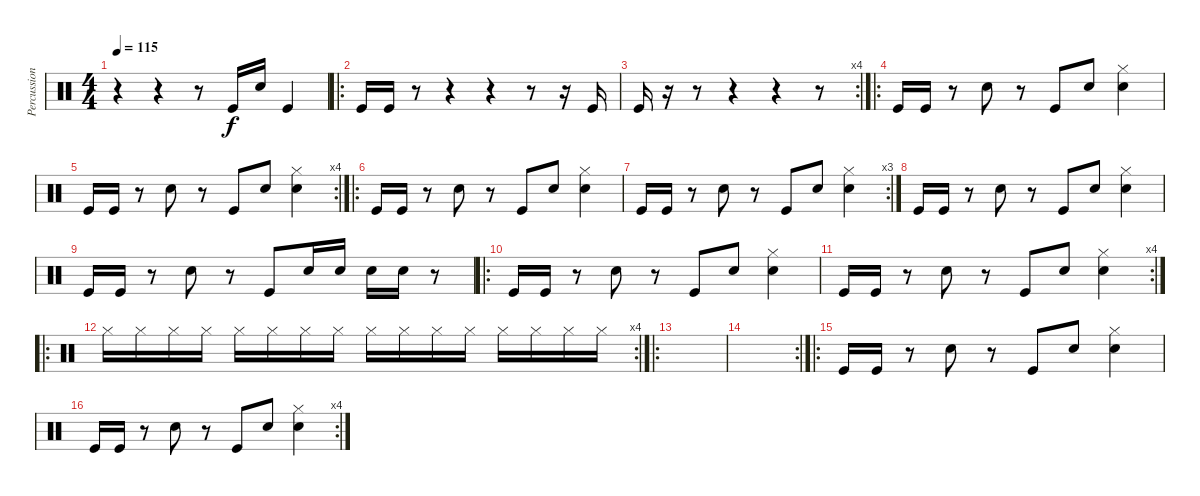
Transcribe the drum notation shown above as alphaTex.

\track ("Percussions" "Percussion") {instrument percussion}
\staff {score}
\articulation defaults
\ts (4 4)
\tempo 115
\clef neutral
\ks c
r.4{dy f} r.4 r.8 "Kick (hit)".16 "Electric Snare (hit)".16 "Kick (hit)".4 |
\ro "Kick (hit)".16 "Kick (hit)".16
r.8 r.4 r.4 r.8 r.16 "Kick (hit)".16 |
\rc 4 "Kick (hit)".16
r.16 r.8 r.4 r.4 r.8 |
\ro "Kick (hit)".16 "Kick (hit)".16
r.8 "Electric Snare (hit)".8 r.8 "Kick (hit)".8 "Electric Snare (hit)".8 ("Hi-Hat (closed)" "Electric Snare (hit)").4 |
\rc 4 "Kick (hit)".16 "Kick (hit)".16
r.8 "Electric Snare (hit)".8 r.8 "Kick (hit)".8 "Electric Snare (hit)".8 ("Hi-Hat (closed)" "Electric Snare (hit)").4 |
\ro "Kick (hit)".16 "Kick (hit)".16
r.8 "Electric Snare (hit)".8 r.8 "Kick (hit)".8 "Electric Snare (hit)".8 ("Hi-Hat (closed)" "Electric Snare (hit)").4 |
\rc 3 "Kick (hit)".16 "Kick (hit)".16
r.8 "Electric Snare (hit)".8 r.8 "Kick (hit)".8 "Electric Snare (hit)".8 ("Hi-Hat (closed)" "Electric Snare (hit)").4 |
"Kick (hit)".16 "Kick (hit)".16 r.8 "Electric Snare (hit)".8 r.8 "Kick (hit)".8 "Electric Snare (hit)".8 ("Hi-Hat (closed)" "Electric Snare (hit)").4 |
"Kick (hit)".16 "Kick (hit)".16 r.8 "Electric Snare (hit)".8 r.8 "Kick (hit)".8 "Electric Snare (hit)".16 "Electric Snare (hit)".16 "Electric Snare (hit)".16 "Electric Snare (hit)".16 r.8 |
\ro "Kick (hit)".16 "Kick (hit)".16
r.8 "Electric Snare (hit)".8 r.8 "Kick (hit)".8 "Electric Snare (hit)".8 ("Hi-Hat (closed)" "Electric Snare (hit)").4 |
\rc 4 "Kick (hit)".16 "Kick (hit)".16
r.8 "Electric Snare (hit)".8 r.8 "Kick (hit)".8 "Electric Snare (hit)".8 ("Hi-Hat (closed)" "Electric Snare (hit)").4 |
\ro
\rc 4 "Hi-Hat (closed)".16 "Hi-Hat (closed)".16 "Hi-Hat (closed)".16 "Hi-Hat (closed)".16 "Hi-Hat (closed)".16 "Hi-Hat (closed)".16 "Hi-Hat (closed)".16 "Hi-Hat (closed)".16 "Hi-Hat (closed)".16 "Hi-Hat (closed)".16 "Hi-Hat (closed)".16 "Hi-Hat (closed)".16 "Hi-Hat (closed)".16 "Hi-Hat (closed)".16 "Hi-Hat (closed)".16 "Hi-Hat (closed)".16
|
\ro
|
\rc 2
|
\ro "Kick (hit)".16 "Kick (hit)".16
r.8 "Electric Snare (hit)".8 r.8 "Kick (hit)".8 "Electric Snare (hit)".8 ("Hi-Hat (closed)" "Electric Snare (hit)").4 |
\rc 4 "Kick (hit)".16 "Kick (hit)".16
r.8 "Electric Snare (hit)".8 r.8 "Kick (hit)".8 "Electric Snare (hit)".8 ("Hi-Hat (closed)" "Electric Snare (hit)").4
